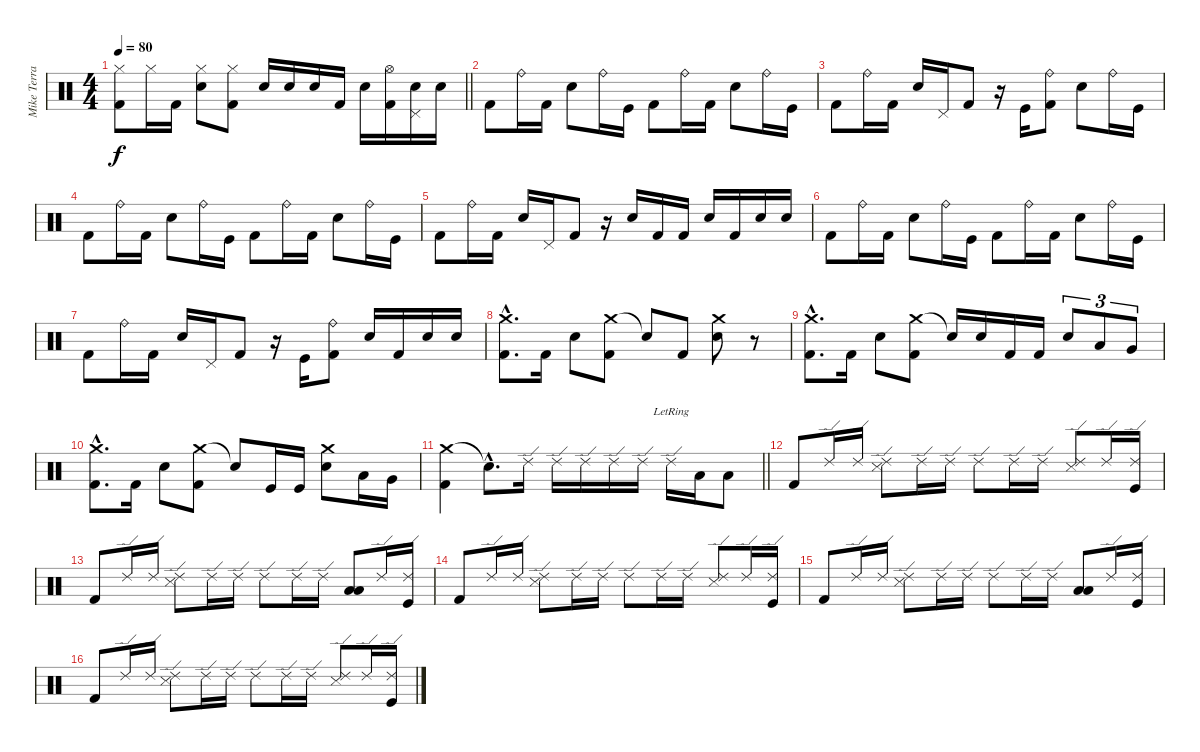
\track ("Mike Terrana" "Mike Terra") {instrument percussion}
\staff {score}
\articulation defaults
\ts (4 4)
\tempo 80
\clef neutral
\barLineRight lightlight
\ks c
("Hi-Hat (closed)" "Kick (hit) 2").8{dy f} "Hi-Hat (closed)".16 "Kick (hit) 2".16 ("Hi-Hat (closed)" "Electric Snare (hit)").8 ("Hi-Hat (closed)" "Kick (hit) 2").8 "Electric Snare (hit)".16 "Electric Snare (hit)".16 "Electric Snare (hit)".16 "Kick (hit) 2".16 "Electric Snare (hit)".16 ("Hi-Hat (open)" "Kick (hit) 2").16 ("Pedal Hi-Hat (hit)" "Electric Snare (hit)").16 "Electric Snare (hit)".16 |
"Kick (hit) 2".8 "Ride (bell)".16 "Kick (hit) 2".16 "Electric Snare (hit)".8 "Ride (bell)".16 "Kick (hit)".16 "Kick (hit) 2".8 "Ride (bell)".16 "Kick (hit) 2".16 "Electric Snare (hit)".8 "Ride (bell)".16 "Kick (hit)".16 |
"Kick (hit) 2".8 "Ride (bell)".16 "Kick (hit) 2".16 "Electric Snare (hit)".16 "Pedal Hi-Hat (hit)".16 "Kick (hit) 2".8 r.16 "Kick (hit)".16 ("Ride (bell)" "Kick (hit) 2").8 "Electric Snare (hit)".8 "Ride (bell)".16 "Kick (hit)".16 |
"Kick (hit) 2".8 "Ride (bell)".16 "Kick (hit) 2".16 "Electric Snare (hit)".8 "Ride (bell)".16 "Kick (hit)".16 "Kick (hit) 2".8 "Ride (bell)".16 "Kick (hit) 2".16 "Electric Snare (hit)".8 "Ride (bell)".16 "Kick (hit)".16 |
"Kick (hit) 2".8 "Ride (bell)".16 "Kick (hit) 2".16 "Electric Snare (hit)".16 "Pedal Hi-Hat (hit)".16 "Kick (hit) 2".8 r.16 "Electric Snare (hit)".16 "Kick (hit) 2".16 "Kick (hit) 2".16 "Electric Snare (hit)".16 "Kick (hit) 2".16 "Electric Snare (hit)".16 "Electric Snare (hit)".16 |
"Kick (hit) 2".8 "Ride (bell)".16 "Kick (hit) 2".16 "Electric Snare (hit)".8 "Ride (bell)".16 "Kick (hit)".16 "Kick (hit) 2".8 "Ride (bell)".16 "Kick (hit) 2".16 "Electric Snare (hit)".8 "Ride (bell)".16 "Kick (hit)".16 |
"Kick (hit) 2".8 "Ride (bell)".16 "Kick (hit) 2".16 "Electric Snare (hit)".16 "Pedal Hi-Hat (hit)".16 "Kick (hit) 2".8 r.16 "Kick (hit)".16 ("Ride (bell)" "Kick (hit) 2").8 "Electric Snare (hit)".16 "Kick (hit) 2".16 "Electric Snare (hit)".16 "Electric Snare (hit)".16 |
("Crash medium (hit)"{hac} "Kick (hit) 2"{hac}).8{d} "Kick (hit) 2".16 "Electric Snare (hit)".8 ("Crash medium (hit)" "Kick (hit) 2").8 "Snare (hit)"{t}.8 "Kick (hit) 2".8 ("Crash medium (hit)" "Electric Snare (hit)").8 r.8 |
("Crash medium (hit)"{hac} "Kick (hit) 2"{hac}).8{d} "Kick (hit) 2".16 "Electric Snare (hit)".8 ("Crash medium (hit)" "Kick (hit) 2").8 "Snare (hit)"{t}.16 "Electric Snare (hit)".16 "Kick (hit) 2".16 "Kick (hit) 2".16 "Electric Snare (hit)".8{tu (3 2)} "Low Tom (hit)".8{tu (3 2)} "Very Low Tom (hit)".8{tu (3 2)} |
("Crash medium (hit)"{hac} "Kick (hit) 2"{hac}).8{d} "Kick (hit) 2".16 "Electric Snare (hit)".8 ("Crash medium (hit)" "Kick (hit) 2").8 "Snare (hit)"{t}.8 "Kick (hit)".16 "Kick (hit)".16 ("Crash medium (hit)" "Electric Snare (hit)").8 "Low Tom (hit)".16 "Very Low Tom (hit)".16 |
\barLineRight lightlight
("Crash medium (hit)" "Kick (hit) 2").4 "Snare (hit)"{hac t}.8{d} "Ride (edge) 2".16 "Ride (edge) 2".16 "Ride (edge) 2".16 "Ride (edge) 2".16 "Ride (edge) 2".16 "Ride (edge) 2"{lr}.16 "Low Tom (hit)".16 "Low Floor Tom (hit)".8 |
"Kick (hit) 2".8 "Ride (edge) 2".16 "Ride (edge) 2".16 ("Ride (edge) 2" "Snare (side stick) 3").8 "Ride (edge) 2".16 "Ride (edge) 2".16 "Ride (edge) 2".8 "Ride (edge) 2".16 "Ride (edge) 2".16 ("Ride (edge) 2" "Snare (side stick) 3").8 "Ride (edge) 2".16 ("Ride (edge) 2" "Kick (hit)").16 |
"Kick (hit) 2".8 "Ride (edge) 2".16 "Ride (edge) 2".16 ("Ride (edge) 2" "Snare (side stick) 3").8 "Ride (edge) 2".16 "Ride (edge) 2".16 "Ride (edge) 2".8 "Ride (edge) 2".16 "Ride (edge) 2".16 ("Low Tom (hit)" "Low Floor Tom (hit)").8 "Ride (edge) 2".16 ("Ride (edge) 2" "Kick (hit)").16 |
"Kick (hit) 2".8 "Ride (edge) 2".16 "Ride (edge) 2".16 ("Ride (edge) 2" "Snare (side stick) 3").8 "Ride (edge) 2".16 "Ride (edge) 2".16 "Ride (edge) 2".8 "Ride (edge) 2".16 "Ride (edge) 2".16 ("Ride (edge) 2" "Snare (side stick) 3").8 "Ride (edge) 2".16 ("Ride (edge) 2" "Kick (hit)").16 |
"Kick (hit) 2".8 "Ride (edge) 2".16 "Ride (edge) 2".16 ("Ride (edge) 2" "Snare (side stick) 3").8 "Ride (edge) 2".16 "Ride (edge) 2".16 "Ride (edge) 2".8 "Ride (edge) 2".16 "Ride (edge) 2".16 ("Low Tom (hit)" "Low Floor Tom (hit)").8 "Ride (edge) 2".16 ("Ride (edge) 2" "Kick (hit)").16 |
"Kick (hit) 2".8 "Ride (edge) 2".16 "Ride (edge) 2".16 ("Ride (edge) 2" "Snare (side stick) 3").8 "Ride (edge) 2".16 "Ride (edge) 2".16 "Ride (edge) 2".8 "Ride (edge) 2".16 "Ride (edge) 2".16 ("Ride (edge) 2" "Snare (side stick) 3").8 "Ride (edge) 2".16 ("Ride (edge) 2" "Kick (hit)").16
